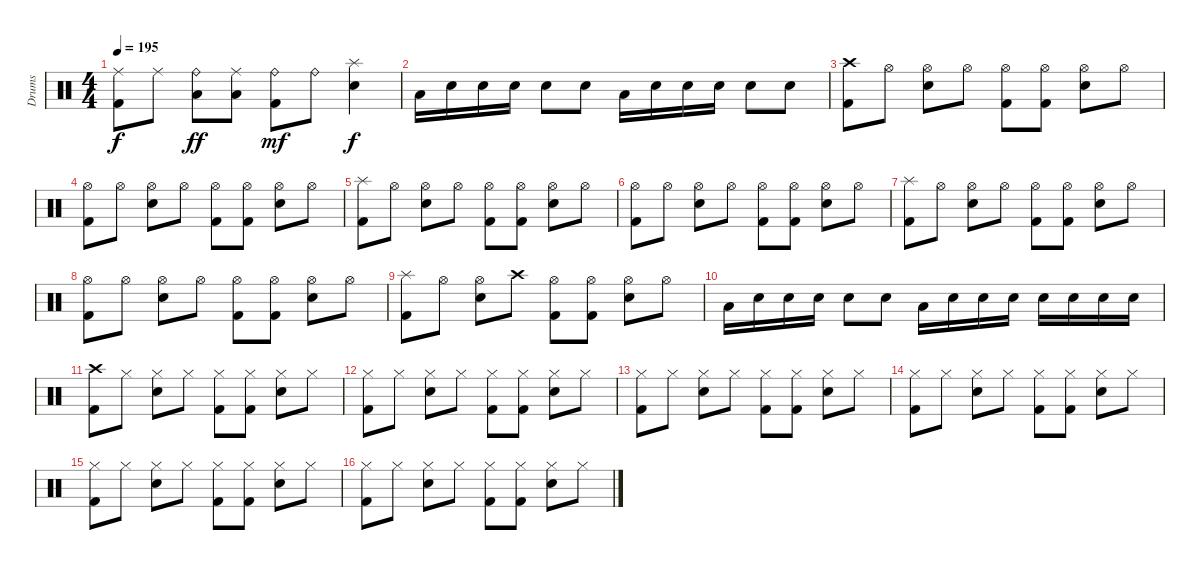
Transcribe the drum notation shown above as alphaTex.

\track ("Drums" "Drums") {instrument percussion}
\staff {score}
\articulation defaults
\ts (4 4)
\tempo 195
\clef neutral
\ks c
("Ride (middle)" "Kick (hit) 2").8{dy f} "Ride (middle)".8 ("Ride (bell)" "Low Tom (hit)").8{dy ff} ("Ride (middle)" "Low Tom (hit)").8 ("Ride (bell)" "Kick (hit) 2").8{dy mf} "Ride (bell)".8 ("Splash (hit)" "Snare (hit) 2").4{dy f} |
"Low Tom (hit)".16 "Snare (hit) 2".16 "Snare (hit) 2".16 "Snare (hit) 2".16 "Snare (hit) 2".8 "Snare (hit) 2".8 "Low Tom (hit)".16 "Snare (hit) 2".16 "Snare (hit) 2".16 "Snare (hit) 2".16 "Snare (hit) 2".8 "Snare (hit) 2".8 |
("Crash high (hit)" "Kick (hit) 2").8 "Hi-Hat (open)".8 ("Hi-Hat (open)" "Snare (hit) 2").8 "Hi-Hat (open)".8 ("Hi-Hat (open)" "Kick (hit) 2").8 ("Hi-Hat (open)" "Kick (hit) 2").8 ("Hi-Hat (open)" "Snare (hit) 2").8 "Hi-Hat (open)".8 |
("Hi-Hat (open)" "Kick (hit) 2").8 "Hi-Hat (open)".8 ("Hi-Hat (open)" "Snare (hit) 2").8 "Hi-Hat (open)".8 ("Hi-Hat (open)" "Kick (hit) 2").8 ("Hi-Hat (open)" "Kick (hit) 2").8 ("Hi-Hat (open)" "Snare (hit) 2").8 "Hi-Hat (open)".8 |
("Splash (hit)" "Kick (hit) 2").8 "Hi-Hat (open)".8 ("Hi-Hat (open)" "Snare (hit) 2").8 "Hi-Hat (open)".8 ("Hi-Hat (open)" "Kick (hit) 2").8 ("Hi-Hat (open)" "Kick (hit) 2").8 ("Hi-Hat (open)" "Snare (hit) 2").8 "Hi-Hat (open)".8 |
("Hi-Hat (open)" "Kick (hit) 2").8 "Hi-Hat (open)".8 ("Hi-Hat (open)" "Snare (hit) 2").8 "Hi-Hat (open)".8 ("Hi-Hat (open)" "Kick (hit) 2").8 ("Hi-Hat (open)" "Kick (hit) 2").8 ("Hi-Hat (open)" "Snare (hit) 2").8 "Hi-Hat (open)".8 |
("Splash (hit)" "Kick (hit) 2").8 "Hi-Hat (open)".8 ("Hi-Hat (open)" "Snare (hit) 2").8 "Hi-Hat (open)".8 ("Hi-Hat (open)" "Kick (hit) 2").8 ("Hi-Hat (open)" "Kick (hit) 2").8 ("Hi-Hat (open)" "Snare (hit) 2").8 "Hi-Hat (open)".8 |
("Hi-Hat (open)" "Kick (hit) 2").8 "Hi-Hat (open)".8 ("Hi-Hat (open)" "Snare (hit) 2").8 "Hi-Hat (open)".8 ("Hi-Hat (open)" "Kick (hit) 2").8 ("Hi-Hat (open)" "Kick (hit) 2").8 ("Hi-Hat (open)" "Snare (hit) 2").8 "Hi-Hat (open)".8 |
("Splash (hit)" "Kick (hit) 2").8 "Hi-Hat (open)".8 ("Hi-Hat (open)" "Snare (hit) 2").8 "Crash high (hit)".8 ("Hi-Hat (open)" "Kick (hit) 2").8 ("Hi-Hat (open)" "Kick (hit) 2").8 ("Hi-Hat (open)" "Snare (hit) 2").8 "Hi-Hat (open)".8 |
"Low Tom (hit)".16 "Snare (hit) 2".16 "Snare (hit) 2".16 "Snare (hit) 2".16 "Snare (hit) 2".8 "Snare (hit) 2".8 "Low Tom (hit)".16 "Snare (hit) 2".16 "Snare (hit) 2".16 "Snare (hit) 2".16 "Snare (hit) 2".16 "Snare (hit) 2".16 "Snare (hit) 2".16 "Snare (hit) 2".16 |
("Crash high (hit)" "Kick (hit) 2").8 "Hi-Hat (closed)".8 ("Hi-Hat (closed)" "Snare (hit) 2").8 "Hi-Hat (closed)".8 ("Hi-Hat (closed)" "Kick (hit) 2").8 ("Hi-Hat (closed)" "Kick (hit) 2").8 ("Hi-Hat (closed)" "Snare (hit) 2").8 "Hi-Hat (closed)".8 |
("Hi-Hat (closed)" "Kick (hit) 2").8 "Hi-Hat (closed)".8 ("Hi-Hat (closed)" "Snare (hit) 2").8 "Hi-Hat (closed)".8 ("Hi-Hat (closed)" "Kick (hit) 2").8 ("Hi-Hat (closed)" "Kick (hit) 2").8 ("Hi-Hat (closed)" "Snare (hit) 2").8 "Hi-Hat (closed)".8 |
("Hi-Hat (closed)" "Kick (hit) 2").8 "Hi-Hat (closed)".8 ("Hi-Hat (closed)" "Snare (hit) 2").8 "Hi-Hat (closed)".8 ("Hi-Hat (closed)" "Kick (hit) 2").8 ("Hi-Hat (closed)" "Kick (hit) 2").8 ("Hi-Hat (closed)" "Snare (hit) 2").8 "Hi-Hat (closed)".8 |
("Hi-Hat (closed)" "Kick (hit) 2").8 "Hi-Hat (closed)".8 ("Hi-Hat (closed)" "Snare (hit) 2").8 "Hi-Hat (closed)".8 ("Hi-Hat (closed)" "Kick (hit) 2").8 ("Hi-Hat (closed)" "Kick (hit) 2").8 ("Hi-Hat (closed)" "Snare (hit) 2").8 "Hi-Hat (closed)".8 |
("Hi-Hat (closed)" "Kick (hit) 2").8 "Hi-Hat (closed)".8 ("Hi-Hat (closed)" "Snare (hit) 2").8 "Hi-Hat (closed)".8 ("Hi-Hat (closed)" "Kick (hit) 2").8 ("Hi-Hat (closed)" "Kick (hit) 2").8 ("Hi-Hat (closed)" "Snare (hit) 2").8 "Hi-Hat (closed)".8 |
("Hi-Hat (closed)" "Kick (hit) 2").8 "Hi-Hat (closed)".8 ("Hi-Hat (closed)" "Snare (hit) 2").8 "Hi-Hat (closed)".8 ("Hi-Hat (closed)" "Kick (hit) 2").8 ("Hi-Hat (closed)" "Kick (hit) 2").8 ("Hi-Hat (closed)" "Snare (hit) 2").8 "Hi-Hat (closed)".8
